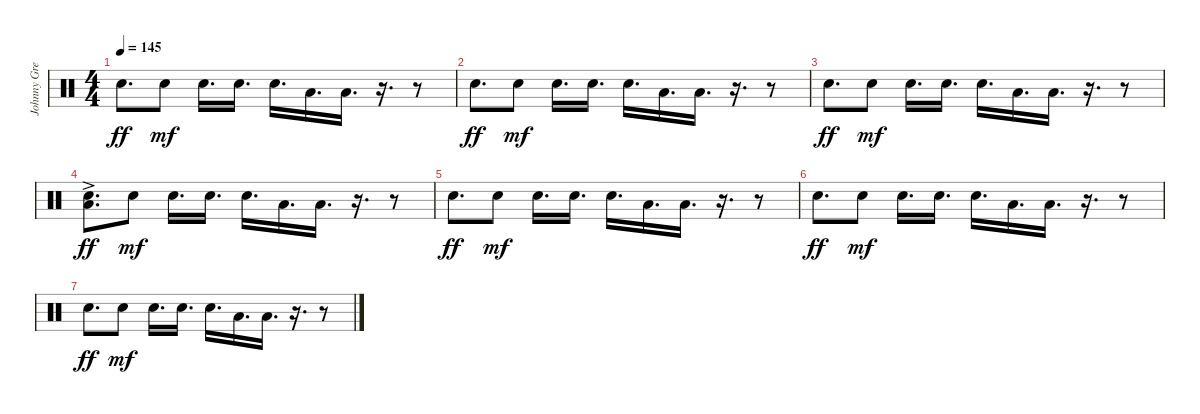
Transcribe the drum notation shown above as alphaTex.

\track ("Johnny Greenwood" "Johnny Gre") {instrument percussion}
\staff {score}
\articulation defaults
\ts (4 4)
\tempo 145
\clef neutral
\ks c "Snare (hit) 2".8{d dy ff} "Snare (hit) 2".8{dy mf} "Snare (hit) 2".16{d} "Snare (hit) 2".16{d} "Snare (hit) 2".16{d} "Low Floor Tom (hit)".16{d} "Low Floor Tom (hit)".16{d}
r.16{d} r.8 |
"Snare (hit) 2".8{d dy ff} "Snare (hit) 2".8{dy mf} "Snare (hit) 2".16{d} "Snare (hit) 2".16{d} "Snare (hit) 2".16{d} "Low Floor Tom (hit)".16{d} "Low Floor Tom (hit)".16{d} r.16{d} r.8 |
"Snare (hit) 2".8{d dy ff} "Snare (hit) 2".8{dy mf} "Snare (hit) 2".16{d} "Snare (hit) 2".16{d} "Snare (hit) 2".16{d} "Low Floor Tom (hit)".16{d} "Low Floor Tom (hit)".16{d} r.16{d} r.8 |
("Snare (hit) 2" "Low Floor Tom (hit)"{ac}).8{d dy ff} "Snare (hit) 2".8{dy mf} "Snare (hit) 2".16{d} "Snare (hit) 2".16{d} "Snare (hit) 2".16{d} "Low Floor Tom (hit)".16{d} "Low Floor Tom (hit)".16{d} r.16{d} r.8 |
"Snare (hit) 2".8{d dy ff} "Snare (hit) 2".8{dy mf} "Snare (hit) 2".16{d} "Snare (hit) 2".16{d} "Snare (hit) 2".16{d} "Low Floor Tom (hit)".16{d} "Low Floor Tom (hit)".16{d} r.16{d} r.8 |
"Snare (hit) 2".8{d dy ff} "Snare (hit) 2".8{dy mf} "Snare (hit) 2".16{d} "Snare (hit) 2".16{d} "Snare (hit) 2".16{d} "Low Floor Tom (hit)".16{d} "Low Floor Tom (hit)".16{d} r.16{d} r.8 |
"Snare (hit) 2".8{d dy ff} "Snare (hit) 2".8{dy mf} "Snare (hit) 2".16{d} "Snare (hit) 2".16{d} "Snare (hit) 2".16{d} "Low Floor Tom (hit)".16{d} "Low Floor Tom (hit)".16{d} r.16{d} r.8
